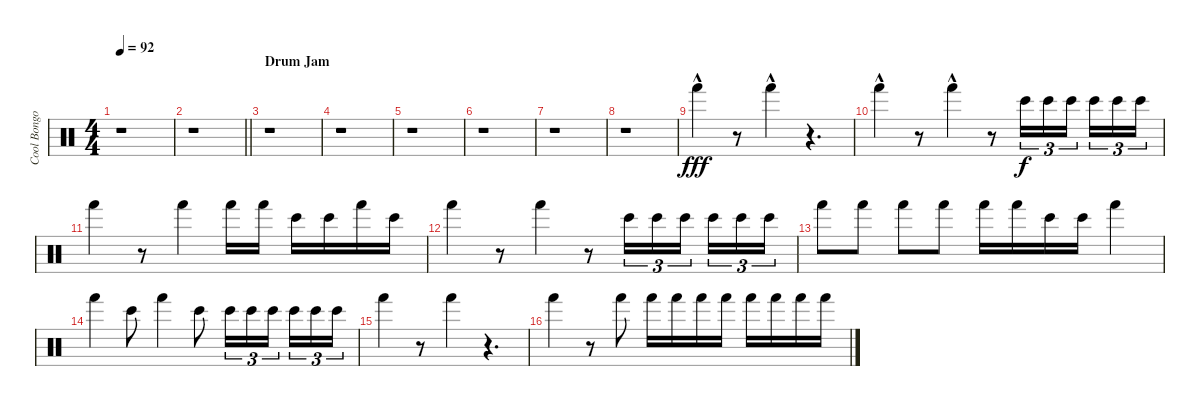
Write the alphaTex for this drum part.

\track ("Cool Bongo Background" "Cool Bongo") {instrument percussion}
\staff {score}
\articulation defaults
\ts (4 4)
\tempo 92
\clef neutral
\ks c
r.1{dy fff} |
\barLineRight lightlight
r.1 |
\section ("" "Drum Jam")
r.1 |
r.1 |
r.1 |
r.1 |
r.1 |
r.1 |
"Hand (hit)"{hac}.4 r.8 "Hand (hit)"{hac}.4 r.4{d} |
"Hand (hit)"{hac}.4 r.8 "Hand (hit)"{hac}.4 r.8 "Bongo High (hit)".16{tu (3 2) dy f} "Bongo High (hit)".16{tu (3 2)} "Bongo High (hit)".16{tu (3 2) beam splitsecondary} "Bongo High (hit)".16{tu (3 2)} "Bongo High (hit)".16{tu (3 2)} "Bongo High (hit)".16{tu (3 2)} |
"Hand (hit)".4 r.8 "Hand (hit)".4 "Hand (hit)".16 "Hand (hit)".16 "Bongo High (hit)".16 "Bongo High (hit)".16 "Hand (hit)".16 "Bongo High (hit)".16 |
"Hand (hit)".4 r.8 "Hand (hit)".4 r.8 "Bongo High (hit)".16{tu (3 2)} "Bongo High (hit)".16{tu (3 2)} "Bongo High (hit)".16{tu (3 2) beam splitsecondary} "Bongo High (hit)".16{tu (3 2)} "Bongo High (hit)".16{tu (3 2)} "Bongo High (hit)".16{tu (3 2)} |
"Hand (hit)".8 "Hand (hit)".8 "Hand (hit)".8 "Hand (hit)".8 "Hand (hit)".16 "Hand (hit)".16 "Bongo High (hit)".16 "Bongo High (hit)".16 "Hand (hit)".4 |
"Hand (hit)".4{volume 16} "Bongo High (hit)".8 "Hand (hit)".4 "Bongo High (hit)".8 "Bongo High (hit)".16{tu (3 2)} "Bongo High (hit)".16{tu (3 2)} "Bongo High (hit)".16{tu (3 2) beam splitsecondary} "Bongo High (hit)".16{tu (3 2)} "Bongo High (hit)".16{tu (3 2)} "Bongo High (hit)".16{tu (3 2)} |
"Hand (hit)".4 r.8 "Hand (hit)".4 r.4{d} |
"Hand (hit)".4 r.8 "Hand (hit)".8 "Hand (hit)".16 "Hand (hit)".16 "Hand (hit)".16 "Hand (hit)".16 "Hand (hit)".16 "Hand (hit)".16 "Hand (hit)".16 "Hand (hit)".16
